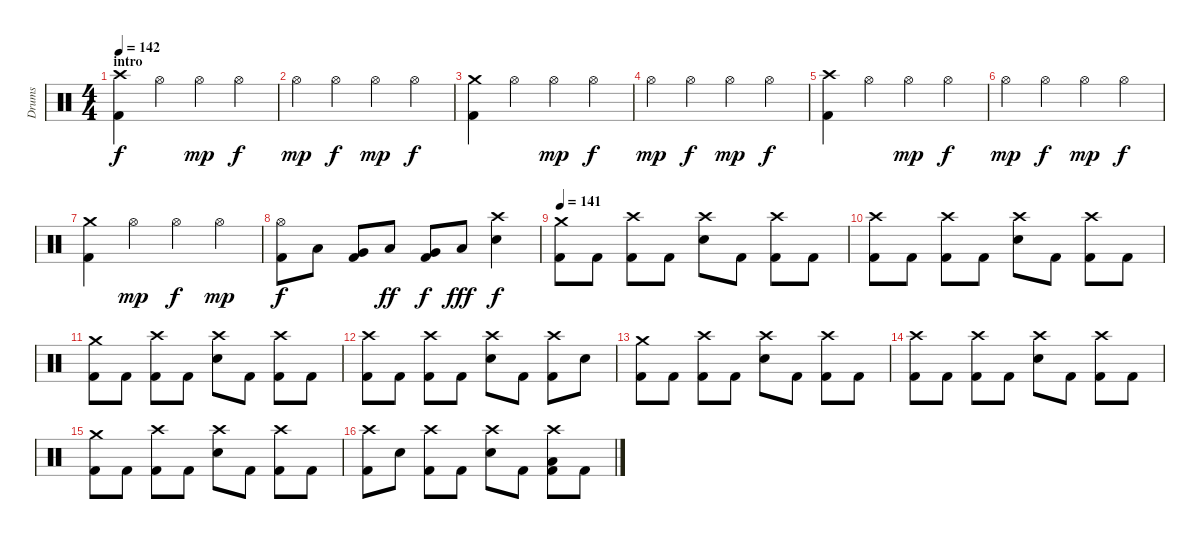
\track ("Drums" "Drums") {instrument percussion}
\staff {score}
\articulation defaults
\ts (4 4)
\section ("" "intro")
\tempo 142
\clef neutral
\ks c
("Crash high (hit)" "Kick (hit) 2").4{dy f} "Hi-Hat (open)".4 "Hi-Hat (open)".4{dy mp} "Hi-Hat (open)".4{dy f} |
"Hi-Hat (open)".4{dy mp} "Hi-Hat (open)".4{dy f} "Hi-Hat (open)".4{dy mp} "Hi-Hat (open)".4{dy f} |
("Crash medium (hit)" "Kick (hit) 2").4 "Hi-Hat (open)".4 "Hi-Hat (open)".4{dy mp} "Hi-Hat (open)".4{dy f} |
"Hi-Hat (open)".4{dy mp} "Hi-Hat (open)".4{dy f} "Hi-Hat (open)".4{dy mp} "Hi-Hat (open)".4{dy f} |
("Crash high (hit)" "Kick (hit) 2").4 "Hi-Hat (open)".4 "Hi-Hat (open)".4{dy mp} "Hi-Hat (open)".4{dy f} |
"Hi-Hat (open)".4{dy mp} "Hi-Hat (open)".4{dy f} "Hi-Hat (open)".4{dy mp} "Hi-Hat (open)".4{dy f} |
("Crash medium (hit)" "Kick (hit) 2").4 "Hi-Hat (open)".4{dy mp} "Hi-Hat (open)".4{dy f} "Hi-Hat (open)".4{dy mp} |
("Hi-Hat (open)" "Kick (hit) 2").8{dy f} "Low Tom (hit)".8 ("Very Low Tom (hit)" "Kick (hit) 2").8 "Low Tom (hit)".8{dy ff} ("Very Low Tom (hit)" "Kick (hit) 2").8{dy f} "Low Tom (hit)".8{dy fff} ("Crash high (hit)" "Electric Snare (hit)").4{dy f} |
\tempo 141
("Crash medium (hit)" "Kick (hit) 2").8 "Kick (hit) 2".8 ("Crash high (hit)" "Kick (hit) 2").8 "Kick (hit) 2".8 ("Crash high (hit)" "Electric Snare (hit)").8 "Kick (hit) 2".8 ("Crash high (hit)" "Kick (hit) 2").8 "Kick (hit) 2".8 |
("Crash high (hit)" "Kick (hit) 2").8 "Kick (hit) 2".8 ("Crash high (hit)" "Kick (hit) 2").8 "Kick (hit) 2".8 ("Crash high (hit)" "Electric Snare (hit)").8 "Kick (hit) 2".8 ("Crash high (hit)" "Kick (hit) 2").8 "Kick (hit) 2".8 |
("Crash medium (hit)" "Kick (hit) 2").8 "Kick (hit) 2".8 ("Crash high (hit)" "Kick (hit) 2").8 "Kick (hit) 2".8 ("Crash high (hit)" "Electric Snare (hit)").8 "Kick (hit) 2".8 ("Crash high (hit)" "Kick (hit) 2").8 "Kick (hit) 2".8 |
("Crash high (hit)" "Kick (hit) 2").8 "Kick (hit) 2".8 ("Crash high (hit)" "Kick (hit) 2").8 "Kick (hit) 2".8 ("Crash high (hit)" "Electric Snare (hit)").8 "Kick (hit) 2".8 ("Crash high (hit)" "Kick (hit) 2").8 "Electric Snare (hit)".8 |
("Crash medium (hit)" "Kick (hit) 2").8 "Kick (hit) 2".8 ("Crash high (hit)" "Kick (hit) 2").8 "Kick (hit) 2".8 ("Crash high (hit)" "Electric Snare (hit)").8 "Kick (hit) 2".8 ("Crash high (hit)" "Kick (hit) 2").8 "Kick (hit) 2".8 |
("Crash high (hit)" "Kick (hit) 2").8 "Kick (hit) 2".8 ("Crash high (hit)" "Kick (hit) 2").8 "Kick (hit) 2".8 ("Crash high (hit)" "Electric Snare (hit)").8 "Kick (hit) 2".8 ("Crash high (hit)" "Kick (hit) 2").8 "Kick (hit) 2".8 |
("Crash medium (hit)" "Kick (hit) 2").8 "Kick (hit) 2".8 ("Crash high (hit)" "Kick (hit) 2").8 "Kick (hit) 2".8 ("Crash high (hit)" "Electric Snare (hit)").8 "Kick (hit) 2".8 ("Crash high (hit)" "Kick (hit) 2").8 "Kick (hit) 2".8 |
("Crash high (hit)" "Kick (hit) 2").8 "Electric Snare (hit)".8 ("Crash high (hit)" "Kick (hit) 2").8 "Kick (hit) 2".8 ("Crash high (hit)" "Electric Snare (hit)").8 "Kick (hit) 2".8 ("Crash high (hit)" "Low Tom (hit)" "Kick (hit) 2").8 "Kick (hit) 2".8
